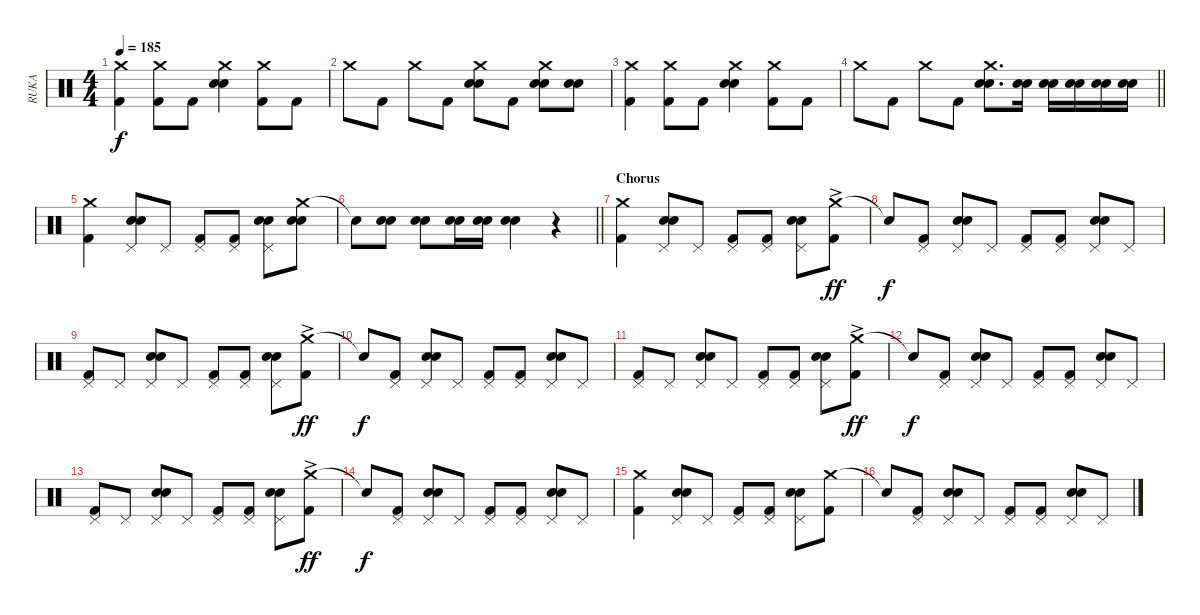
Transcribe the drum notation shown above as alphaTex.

\track ("RUKA" "RUKA") {instrument percussion}
\staff {score}
\articulation defaults
\ts (4 4)
\tempo 185
\clef neutral
\ks c
("Crash medium (hit)" "Kick (hit) 2").4{dy f} ("Crash medium (hit)" "Kick (hit) 2").8 "Kick (hit) 2".8 ("Crash medium (hit)" "Snare (hit) 2" "Electric Snare (hit)").4 ("Crash medium (hit)" "Kick (hit) 2").8 "Kick (hit) 2".8 |
"Crash medium (hit)".8 "Kick (hit) 2".8 "Crash medium (hit)".8 "Kick (hit) 2".8 ("Crash medium (hit)" "Snare (hit) 2" "Electric Snare (hit)").8 "Kick (hit) 2".8 ("Crash medium (hit)" "Snare (hit) 2" "Electric Snare (hit)").8 ("Snare (hit) 2" "Electric Snare (hit)").8 |
("Crash medium (hit)" "Kick (hit) 2").4 ("Crash medium (hit)" "Kick (hit) 2").8 "Kick (hit) 2".8 ("Crash medium (hit)" "Snare (hit) 2" "Electric Snare (hit)").4 ("Crash medium (hit)" "Kick (hit) 2").8 "Kick (hit) 2".8 |
\barLineRight lightlight "Crash medium (hit)".8 "Kick (hit) 2".8 "Crash medium (hit)".8 "Kick (hit) 2".8
("Crash medium (hit)" "Snare (hit) 2" "Electric Snare (hit)").8{d} ("Snare (hit) 2" "Electric Snare (hit)").16 ("Snare (hit) 2" "Electric Snare (hit)").16 ("Snare (hit) 2" "Electric Snare (hit)").16 ("Snare (hit) 2" "Electric Snare (hit)").16 ("Snare (hit) 2" "Electric Snare (hit)").16 |
("Crash medium (hit)" "Kick (hit) 2").4 ("Pedal Hi-Hat (hit)" "Snare (hit) 2" "Electric Snare (hit)").8 "Pedal Hi-Hat (hit)".8 ("Pedal Hi-Hat (hit)" "Kick (hit) 2").8 ("Pedal Hi-Hat (hit)" "Kick (hit) 2").8 ("Pedal Hi-Hat (hit)" "Snare (hit) 2" "Electric Snare (hit)").8 ("Crash medium (hit)" "Snare (hit) 2" "Electric Snare (hit)").8 |
\barLineRight lightlight "Snare (hit)"{t}.8
("Snare (hit) 2" "Electric Snare (hit)").8 ("Snare (hit) 2" "Electric Snare (hit)").8 ("Snare (hit) 2" "Electric Snare (hit)").16 ("Snare (hit) 2" "Electric Snare (hit)").16 ("Snare (hit) 2" "Electric Snare (hit)").4 r.4 |
\section ("" "Chorus")
("Crash medium (hit)" "Kick (hit) 2").4 ("Pedal Hi-Hat (hit)" "Snare (hit) 2" "Electric Snare (hit)").8 "Pedal Hi-Hat (hit)".8 ("Pedal Hi-Hat (hit)" "Kick (hit) 2").8 ("Pedal Hi-Hat (hit)" "Kick (hit) 2").8 ("Pedal Hi-Hat (hit)" "Snare (hit) 2" "Electric Snare (hit)").8 ("Crash medium (hit)"{ac} "Kick (hit) 2").8{dy ff} |
"Snare (hit)"{t}.8{dy f} ("Pedal Hi-Hat (hit)" "Kick (hit) 2").8 ("Pedal Hi-Hat (hit)" "Snare (hit) 2" "Electric Snare (hit)").8 "Pedal Hi-Hat (hit)".8 ("Pedal Hi-Hat (hit)" "Kick (hit) 2").8 ("Pedal Hi-Hat (hit)" "Kick (hit) 2").8 ("Pedal Hi-Hat (hit)" "Snare (hit) 2" "Electric Snare (hit)").8 "Pedal Hi-Hat (hit)".8 |
("Pedal Hi-Hat (hit)" "Kick (hit) 2").8 "Pedal Hi-Hat (hit)".8 ("Pedal Hi-Hat (hit)" "Snare (hit) 2" "Electric Snare (hit)").8 "Pedal Hi-Hat (hit)".8 ("Pedal Hi-Hat (hit)" "Kick (hit) 2").8 ("Pedal Hi-Hat (hit)" "Kick (hit) 2").8 ("Pedal Hi-Hat (hit)" "Snare (hit) 2" "Electric Snare (hit)").8 ("Crash medium (hit)"{ac} "Kick (hit) 2").8{dy ff} |
"Snare (hit)"{t}.8{dy f} ("Pedal Hi-Hat (hit)" "Kick (hit) 2").8 ("Pedal Hi-Hat (hit)" "Snare (hit) 2" "Electric Snare (hit)").8 "Pedal Hi-Hat (hit)".8 ("Pedal Hi-Hat (hit)" "Kick (hit) 2").8 ("Pedal Hi-Hat (hit)" "Kick (hit) 2").8 ("Pedal Hi-Hat (hit)" "Snare (hit) 2" "Electric Snare (hit)").8 "Pedal Hi-Hat (hit)".8 |
("Pedal Hi-Hat (hit)" "Kick (hit) 2").8 "Pedal Hi-Hat (hit)".8 ("Pedal Hi-Hat (hit)" "Snare (hit) 2" "Electric Snare (hit)").8 "Pedal Hi-Hat (hit)".8 ("Pedal Hi-Hat (hit)" "Kick (hit) 2").8 ("Pedal Hi-Hat (hit)" "Kick (hit) 2").8 ("Pedal Hi-Hat (hit)" "Snare (hit) 2" "Electric Snare (hit)").8 ("Crash medium (hit)"{ac} "Kick (hit) 2").8{dy ff} |
"Snare (hit)"{t}.8{dy f} ("Pedal Hi-Hat (hit)" "Kick (hit) 2").8 ("Pedal Hi-Hat (hit)" "Snare (hit) 2" "Electric Snare (hit)").8 "Pedal Hi-Hat (hit)".8 ("Pedal Hi-Hat (hit)" "Kick (hit) 2").8 ("Pedal Hi-Hat (hit)" "Kick (hit) 2").8 ("Pedal Hi-Hat (hit)" "Snare (hit) 2" "Electric Snare (hit)").8 "Pedal Hi-Hat (hit)".8 |
("Pedal Hi-Hat (hit)" "Kick (hit) 2").8 "Pedal Hi-Hat (hit)".8 ("Pedal Hi-Hat (hit)" "Snare (hit) 2" "Electric Snare (hit)").8 "Pedal Hi-Hat (hit)".8 ("Pedal Hi-Hat (hit)" "Kick (hit) 2").8 ("Pedal Hi-Hat (hit)" "Kick (hit) 2").8 ("Pedal Hi-Hat (hit)" "Snare (hit) 2" "Electric Snare (hit)").8 ("Crash medium (hit)"{ac} "Kick (hit) 2").8{dy ff} |
"Snare (hit)"{t}.8{dy f} ("Pedal Hi-Hat (hit)" "Kick (hit) 2").8 ("Pedal Hi-Hat (hit)" "Snare (hit) 2" "Electric Snare (hit)").8 "Pedal Hi-Hat (hit)".8 ("Pedal Hi-Hat (hit)" "Kick (hit) 2").8 ("Pedal Hi-Hat (hit)" "Kick (hit) 2").8 ("Pedal Hi-Hat (hit)" "Snare (hit) 2" "Electric Snare (hit)").8 "Pedal Hi-Hat (hit)".8 |
("Crash medium (hit)" "Kick (hit) 2").4 ("Pedal Hi-Hat (hit)" "Snare (hit) 2" "Electric Snare (hit)").8 "Pedal Hi-Hat (hit)".8 ("Pedal Hi-Hat (hit)" "Kick (hit) 2").8 ("Pedal Hi-Hat (hit)" "Kick (hit) 2").8 ("Pedal Hi-Hat (hit)" "Snare (hit) 2" "Electric Snare (hit)").8 ("Crash medium (hit)" "Kick (hit) 2").8 |
"Snare (hit)"{t}.8 ("Pedal Hi-Hat (hit)" "Kick (hit) 2").8 ("Pedal Hi-Hat (hit)" "Snare (hit) 2" "Electric Snare (hit)").8 "Pedal Hi-Hat (hit)".8 ("Pedal Hi-Hat (hit)" "Kick (hit) 2").8 ("Pedal Hi-Hat (hit)" "Kick (hit) 2").8 ("Pedal Hi-Hat (hit)" "Snare (hit) 2" "Electric Snare (hit)").8 "Pedal Hi-Hat (hit)".8
